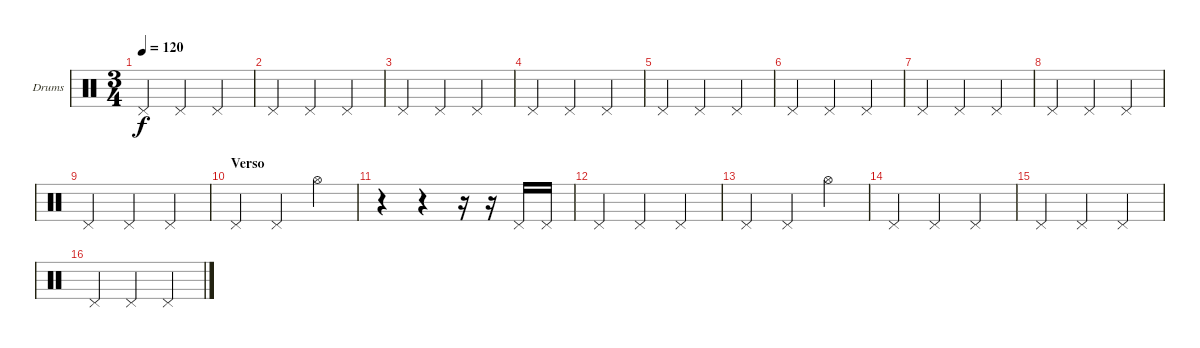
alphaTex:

\bracketExtendMode groupsimilarinstruments
\firstSystemTrackNameOrientation horizontal
\otherSystemsTrackNameOrientation horizontal
\track ("Drumkit" "Drums") {instrument percussion}
\staff {score}
\articulation defaults
\ts (3 4)
\tempo 120
\clef neutral
\ks c "Pedal Hi-Hat (hit)".4{dy f} "Pedal Hi-Hat (hit)".4 "Pedal Hi-Hat (hit)".4
|
"Pedal Hi-Hat (hit)".4 "Pedal Hi-Hat (hit)".4 "Pedal Hi-Hat (hit)".4 |
"Pedal Hi-Hat (hit)".4 "Pedal Hi-Hat (hit)".4 "Pedal Hi-Hat (hit)".4 |
"Pedal Hi-Hat (hit)".4 "Pedal Hi-Hat (hit)".4 "Pedal Hi-Hat (hit)".4 |
"Pedal Hi-Hat (hit)".4 "Pedal Hi-Hat (hit)".4 "Pedal Hi-Hat (hit)".4 |
"Pedal Hi-Hat (hit)".4 "Pedal Hi-Hat (hit)".4 "Pedal Hi-Hat (hit)".4 |
"Pedal Hi-Hat (hit)".4 "Pedal Hi-Hat (hit)".4 "Pedal Hi-Hat (hit)".4 |
"Pedal Hi-Hat (hit)".4 "Pedal Hi-Hat (hit)".4 "Pedal Hi-Hat (hit)".4 |
"Pedal Hi-Hat (hit)".4 "Pedal Hi-Hat (hit)".4 "Pedal Hi-Hat (hit)".4 |
\section ("" "Verso")
"Pedal Hi-Hat (hit)".4 "Pedal Hi-Hat (hit)".4 "Hi-Hat (open)".4 |
r.4 r.4 r.16 r.16 "Pedal Hi-Hat (hit)".16 "Pedal Hi-Hat (hit)".16 |
"Pedal Hi-Hat (hit)".4 "Pedal Hi-Hat (hit)".4 "Pedal Hi-Hat (hit)".4 |
"Pedal Hi-Hat (hit)".4 "Pedal Hi-Hat (hit)".4 "Hi-Hat (open)".4 |
"Pedal Hi-Hat (hit)".4 "Pedal Hi-Hat (hit)".4 "Pedal Hi-Hat (hit)".4 |
"Pedal Hi-Hat (hit)".4 "Pedal Hi-Hat (hit)".4 "Pedal Hi-Hat (hit)".4 |
"Pedal Hi-Hat (hit)".4 "Pedal Hi-Hat (hit)".4 "Pedal Hi-Hat (hit)".4
